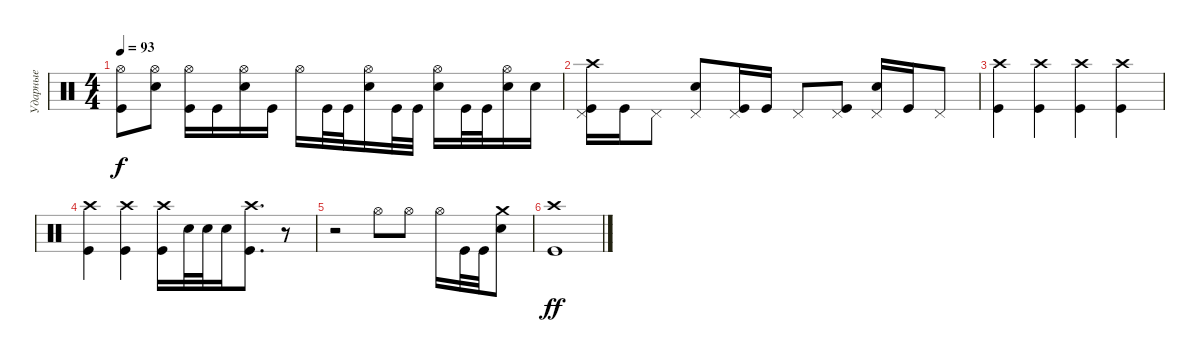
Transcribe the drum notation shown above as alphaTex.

\track ("Ударные" "Ударные") {instrument percussion}
\staff {score}
\articulation defaults
\ts (4 4)
\tempo 93
\clef neutral
\ks c
("Kick (hit)" "Hi-Hat (open)").8{dy f} ("Hi-Hat (open)" "Snare (hit) 2").8 ("Kick (hit)" "Hi-Hat (open)").16 "Kick (hit)".16 ("Snare (hit) 2" "Hi-Hat (open)").16 "Kick (hit)".16 "Hi-Hat (open)".16 "Kick (hit)".32 "Kick (hit)".32 ("Hi-Hat (open)" "Snare (hit) 2").16 "Kick (hit)".32 "Kick (hit)".32 ("Hi-Hat (open)" "Snare (hit) 2").16 "Kick (hit)".32 "Kick (hit)".32 ("Hi-Hat (open)" "Snare (hit) 2").16 "Snare (hit) 2".16 |
("Kick (hit)" "Pedal Hi-Hat (hit)" "Crash high (hit)").16 "Kick (hit)".16 "Pedal Hi-Hat (hit)".8 ("Pedal Hi-Hat (hit)" "Snare (hit) 2").8 ("Kick (hit)" "Pedal Hi-Hat (hit)").16 "Kick (hit)".16 "Pedal Hi-Hat (hit)".8 ("Kick (hit)" "Pedal Hi-Hat (hit)").8 ("Snare (hit) 2" "Pedal Hi-Hat (hit)").16 "Kick (hit)".16 "Pedal Hi-Hat (hit)".8 |
("Kick (hit)" "Crash high (hit)").4 ("Kick (hit)" "Crash high (hit)").4 ("Kick (hit)" "Crash high (hit)").4 ("Kick (hit)" "Crash high (hit)").4 |
("Kick (hit)" "Crash high (hit)").4 ("Kick (hit)" "Crash high (hit)").4 ("Kick (hit)" "Crash high (hit)").16 "Snare (hit) 2".32 "Snare (hit) 2".32 "Snare (hit) 2".16 ("Kick (hit)" "Crash high (hit)").8{d} r.8 |
r.2 "Hi-Hat (open)".8 "Hi-Hat (open)".8 "Hi-Hat (open)".16 "Kick (hit)".32 "Kick (hit)".32 ("Snare (hit) 2" "Crash medium (hit)").8 |
("Kick (hit)" "Crash high (hit)").1{dy ff}
